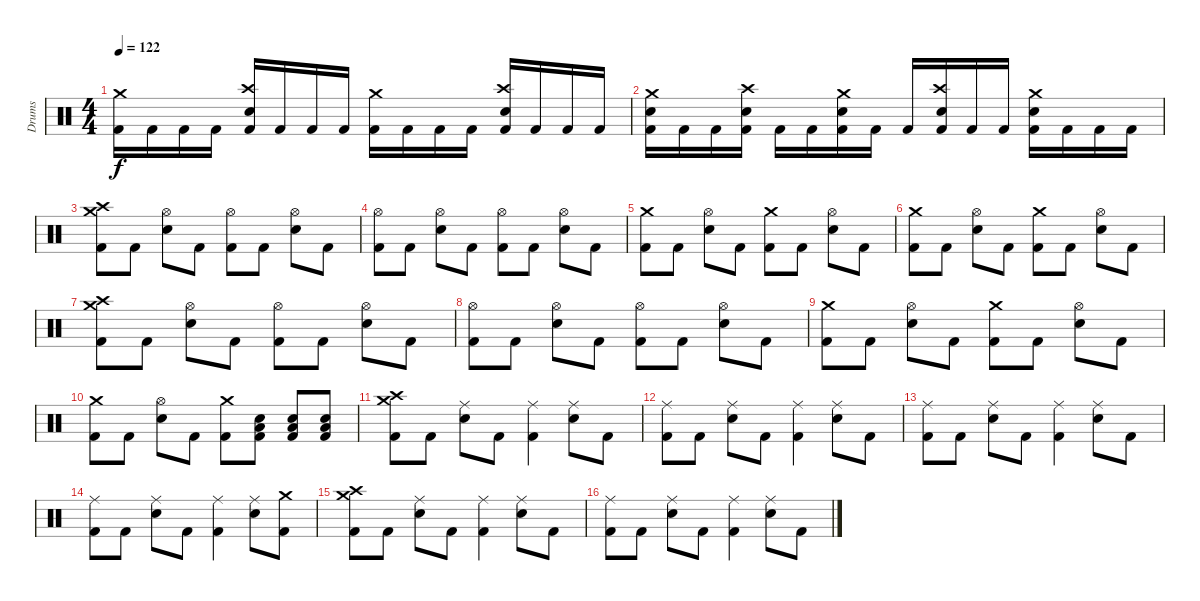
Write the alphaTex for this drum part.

\track ("Drums" "Drums") {instrument percussion}
\staff {score}
\articulation defaults
\ts (4 4)
\tempo 122
\clef neutral
\ks c
("Crash medium (hit)" "Kick (hit) 2").16{dy f} "Kick (hit) 2".16 "Kick (hit) 2".16 "Kick (hit) 2".16 ("Crash high (hit)" "Electric Snare (hit)" "Kick (hit) 2").16 "Kick (hit) 2".16 "Kick (hit) 2".16 "Kick (hit) 2".16 ("Crash medium (hit)" "Kick (hit) 2").16 "Kick (hit) 2".16 "Kick (hit) 2".16 "Kick (hit) 2".16 ("Crash high (hit)" "Electric Snare (hit)" "Kick (hit) 2").16 "Kick (hit) 2".16 "Kick (hit) 2".16 "Kick (hit) 2".16 |
("Crash medium (hit)" "Electric Snare (hit)" "Kick (hit) 2").16 "Kick (hit) 2".16 "Kick (hit) 2".16 ("Crash high (hit)" "Electric Snare (hit)" "Kick (hit) 2").16 "Kick (hit) 2".16 "Kick (hit) 2".16 ("Crash medium (hit)" "Electric Snare (hit)" "Kick (hit) 2").16 "Kick (hit) 2".16 "Kick (hit) 2".16 ("Crash high (hit)" "Electric Snare (hit)" "Kick (hit) 2").16 "Kick (hit) 2".16 "Kick (hit) 2".16 ("Crash medium (hit)" "Electric Snare (hit)" "Kick (hit) 2").16 "Kick (hit) 2".16 "Kick (hit) 2".16 "Kick (hit) 2".16 |
("Crash medium (hit)" "Crash high (hit)" "Kick (hit) 2").8 "Kick (hit) 2".8 ("Hi-Hat (open)" "Electric Snare (hit)").8 "Kick (hit) 2".8 ("Hi-Hat (open)" "Kick (hit) 2").8 "Kick (hit) 2".8 ("Hi-Hat (open)" "Electric Snare (hit)").8 "Kick (hit) 2".8 |
("Hi-Hat (open)" "Kick (hit) 2").8 "Kick (hit) 2".8 ("Hi-Hat (open)" "Electric Snare (hit)").8 "Kick (hit) 2".8 ("Hi-Hat (open)" "Kick (hit) 2").8 "Kick (hit) 2".8 ("Hi-Hat (open)" "Electric Snare (hit)").8 "Kick (hit) 2".8 |
("Crash medium (hit)" "Kick (hit) 2").8 "Kick (hit) 2".8 ("Hi-Hat (open)" "Electric Snare (hit)").8 "Kick (hit) 2".8 ("Crash medium (hit)" "Kick (hit) 2").8 "Kick (hit) 2".8 ("Hi-Hat (open)" "Electric Snare (hit)").8 "Kick (hit) 2".8 |
("Crash medium (hit)" "Kick (hit) 2").8 "Kick (hit) 2".8 ("Hi-Hat (open)" "Electric Snare (hit)").8 "Kick (hit) 2".8 ("Crash medium (hit)" "Kick (hit) 2").8 "Kick (hit) 2".8 ("Hi-Hat (open)" "Electric Snare (hit)").8 "Kick (hit) 2".8 |
("Crash medium (hit)" "Crash high (hit)" "Kick (hit) 2").8 "Kick (hit) 2".8 ("Hi-Hat (open)" "Electric Snare (hit)").8 "Kick (hit) 2".8 ("Hi-Hat (open)" "Kick (hit) 2").8 "Kick (hit) 2".8 ("Hi-Hat (open)" "Electric Snare (hit)").8 "Kick (hit) 2".8 |
("Hi-Hat (open)" "Kick (hit) 2").8 "Kick (hit) 2".8 ("Hi-Hat (open)" "Electric Snare (hit)").8 "Kick (hit) 2".8 ("Hi-Hat (open)" "Kick (hit) 2").8 "Kick (hit) 2".8 ("Hi-Hat (open)" "Electric Snare (hit)").8 "Kick (hit) 2".8 |
("Crash medium (hit)" "Kick (hit) 2").8 "Kick (hit) 2".8 ("Hi-Hat (open)" "Electric Snare (hit)").8 "Kick (hit) 2".8 ("Crash medium (hit)" "Kick (hit) 2").8 "Kick (hit) 2".8 ("Hi-Hat (open)" "Electric Snare (hit)").8 "Kick (hit) 2".8 |
("Crash medium (hit)" "Kick (hit) 2").8 "Kick (hit) 2".8 ("Hi-Hat (open)" "Electric Snare (hit)").8 "Kick (hit) 2".8 ("Crash medium (hit)" "Kick (hit) 2").8 ("Low Floor Tom (hit)" "Electric Snare (hit)" "Kick (hit) 2").8 ("Low Floor Tom (hit)" "Electric Snare (hit)" "Kick (hit) 2").8 ("Low Floor Tom (hit)" "Electric Snare (hit)" "Kick (hit) 2").8 |
("Crash medium (hit)" "Crash high (hit)" "Kick (hit) 2").8 "Kick (hit) 2".8 ("Ride (middle)" "Electric Snare (hit)").8 "Kick (hit) 2".8 ("Ride (middle)" "Kick (hit) 2").4 ("Ride (middle)" "Electric Snare (hit)").8 "Kick (hit) 2".8 |
("Ride (middle)" "Kick (hit) 2").8 "Kick (hit) 2".8 ("Ride (middle)" "Electric Snare (hit)").8 "Kick (hit) 2".8 ("Ride (middle)" "Kick (hit) 2").4 ("Ride (middle)" "Electric Snare (hit)").8 "Kick (hit) 2".8 |
("Ride (middle)" "Kick (hit) 2").8 "Kick (hit) 2".8 ("Ride (middle)" "Electric Snare (hit)").8 "Kick (hit) 2".8 ("Ride (middle)" "Kick (hit) 2").4 ("Ride (middle)" "Electric Snare (hit)").8 "Kick (hit) 2".8 |
("Ride (middle)" "Kick (hit) 2").8 "Kick (hit) 2".8 ("Ride (middle)" "Electric Snare (hit)").8 "Kick (hit) 2".8 ("Ride (middle)" "Kick (hit) 2").4 ("Ride (middle)" "Electric Snare (hit)").8 ("Crash medium (hit)" "Kick (hit) 2").8 |
("Crash medium (hit)" "Crash high (hit)" "Kick (hit) 2").8 "Kick (hit) 2".8 ("Ride (middle)" "Electric Snare (hit)").8 "Kick (hit) 2".8 ("Ride (middle)" "Kick (hit) 2").4 ("Ride (middle)" "Electric Snare (hit)").8 "Kick (hit) 2".8 |
("Ride (middle)" "Kick (hit) 2").8 "Kick (hit) 2".8 ("Ride (middle)" "Electric Snare (hit)").8 "Kick (hit) 2".8 ("Ride (middle)" "Kick (hit) 2").4 ("Ride (middle)" "Electric Snare (hit)").8 "Kick (hit) 2".8
